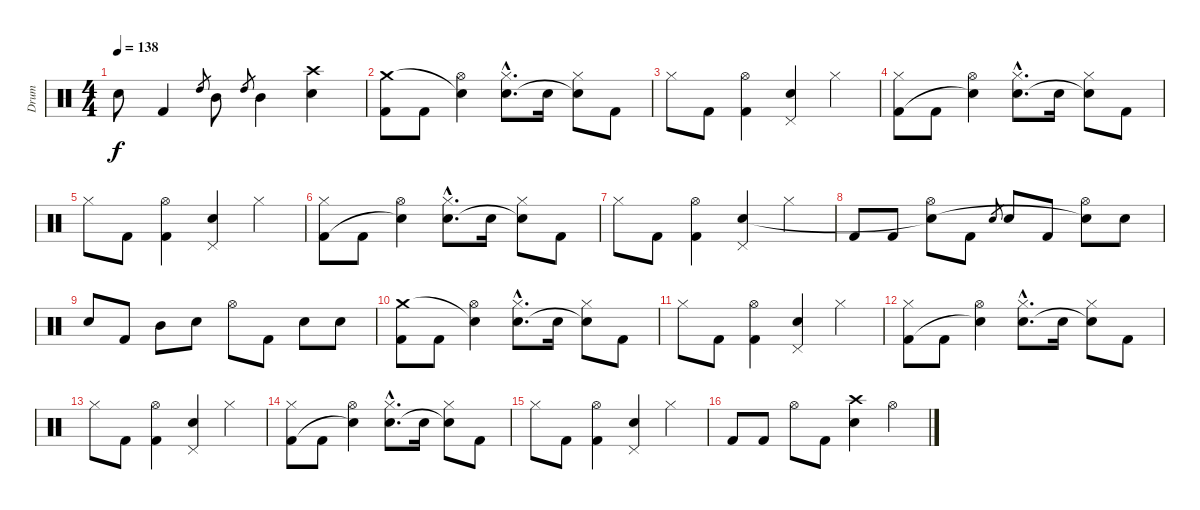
\track ("Drum" "Drum") {instrument percussion}
\staff {score}
\articulation defaults
\ts (4 4)
\tempo 138
\clef neutral
\ks c "Electric Snare (hit)".8{dy f} "Kick (hit) 2".4 "High Tom (hit)".8{gr} "Mid Tom (hit)".8 "High Tom (hit)".8{gr} "Mid Tom (hit)".4
("Electric Snare (hit)" "Crash high (hit)").4 |
\section ("" "")
("Kick (hit) 2" "Crash medium (hit)").8 "Kick (hit) 2".8 ("Hi-Hat (open)" "Snare (hit)"{t}).4 ("Hi-Hat (closed)"{hac} "Electric Snare (hit)"{hac}).8{d} "Electric Snare (hit)".16 ("Hi-Hat (closed)" "Snare (hit)"{t}).8 "Kick (hit) 2".8 |
"Hi-Hat (closed)".8 "Kick (hit) 2".8 ("Hi-Hat (open)" "Kick (hit) 2").4 ("Pedal Hi-Hat (hit)" "Electric Snare (hit)").4 "Hi-Hat (closed)".4 |
("Hi-Hat (closed)" "Kick (hit) 2").8 "Kick (hit) 2".8 ("Hi-Hat (open)" "Snare (hit)"{t}).4 ("Hi-Hat (closed)"{hac} "Electric Snare (hit)"{hac}).8{d} "Electric Snare (hit)".16 ("Hi-Hat (closed)" "Snare (hit)"{t}).8 "Kick (hit) 2".8 |
"Hi-Hat (closed)".8 "Kick (hit) 2".8 ("Hi-Hat (open)" "Kick (hit) 2").4 ("Pedal Hi-Hat (hit)" "Electric Snare (hit)").4 "Hi-Hat (closed)".4 |
("Hi-Hat (closed)" "Kick (hit) 2").8 "Kick (hit) 2".8 ("Hi-Hat (open)" "Snare (hit)"{t}).4 ("Hi-Hat (closed)"{hac} "Electric Snare (hit)"{hac}).8{d} "Electric Snare (hit)".16 ("Hi-Hat (closed)" "Snare (hit)"{t}).8 "Kick (hit) 2".8 |
"Hi-Hat (closed)".8 "Kick (hit) 2".8 ("Hi-Hat (open)" "Kick (hit) 2").4 ("Pedal Hi-Hat (hit)" "Electric Snare (hit)").4 "Hi-Hat (closed)".4 |
"Kick (hit) 2".8 "Kick (hit) 2".8 ("Hi-Hat (open)" "Snare (hit)"{t}).8 "Kick (hit) 2".8 "Electric Snare (hit)".8{gr} "Electric Snare (hit)".8 "Kick (hit) 2".8 ("Hi-Hat (open)" "Snare (hit)"{t}).8 "Electric Snare (hit)".8 |
"Electric Snare (hit)".8 "Kick (hit) 2".8 "Mid Tom (hit)".8 "Electric Snare (hit)".8 "Hi-Hat (open)".8 "Kick (hit) 2".8 "Electric Snare (hit)".8 "Electric Snare (hit)".8 |
\section ("" "")
("Kick (hit) 2" "Crash medium (hit)").8 "Kick (hit) 2".8 ("Hi-Hat (open)" "Snare (hit)"{t}).4 ("Hi-Hat (closed)"{hac} "Electric Snare (hit)"{hac}).8{d} "Electric Snare (hit)".16 ("Hi-Hat (closed)" "Snare (hit)"{t}).8 "Kick (hit) 2".8 |
"Hi-Hat (closed)".8 "Kick (hit) 2".8 ("Hi-Hat (open)" "Kick (hit) 2").4 ("Pedal Hi-Hat (hit)" "Electric Snare (hit)").4 "Hi-Hat (closed)".4 |
("Hi-Hat (closed)" "Kick (hit) 2").8 "Kick (hit) 2".8 ("Hi-Hat (open)" "Snare (hit)"{t}).4 ("Hi-Hat (closed)"{hac} "Electric Snare (hit)"{hac}).8{d} "Electric Snare (hit)".16 ("Hi-Hat (closed)" "Snare (hit)"{t}).8 "Kick (hit) 2".8 |
"Hi-Hat (closed)".8 "Kick (hit) 2".8 ("Hi-Hat (open)" "Kick (hit) 2").4 ("Pedal Hi-Hat (hit)" "Electric Snare (hit)").4 "Hi-Hat (closed)".4 |
("Hi-Hat (closed)" "Kick (hit) 2").8 "Kick (hit) 2".8 ("Hi-Hat (open)" "Snare (hit)"{t}).4 ("Hi-Hat (closed)"{hac} "Electric Snare (hit)"{hac}).8{d} "Electric Snare (hit)".16 ("Hi-Hat (closed)" "Snare (hit)"{t}).8 "Kick (hit) 2".8 |
"Hi-Hat (closed)".8 "Kick (hit) 2".8 ("Hi-Hat (open)" "Kick (hit) 2").4 ("Pedal Hi-Hat (hit)" "Electric Snare (hit)").4 "Hi-Hat (closed)".4 |
"Kick (hit) 2".8 "Kick (hit) 2".8 "Hi-Hat (open)".8 "Kick (hit) 2".8 ("Electric Snare (hit)" "Crash high (hit)").4 "Hi-Hat (open)".4
